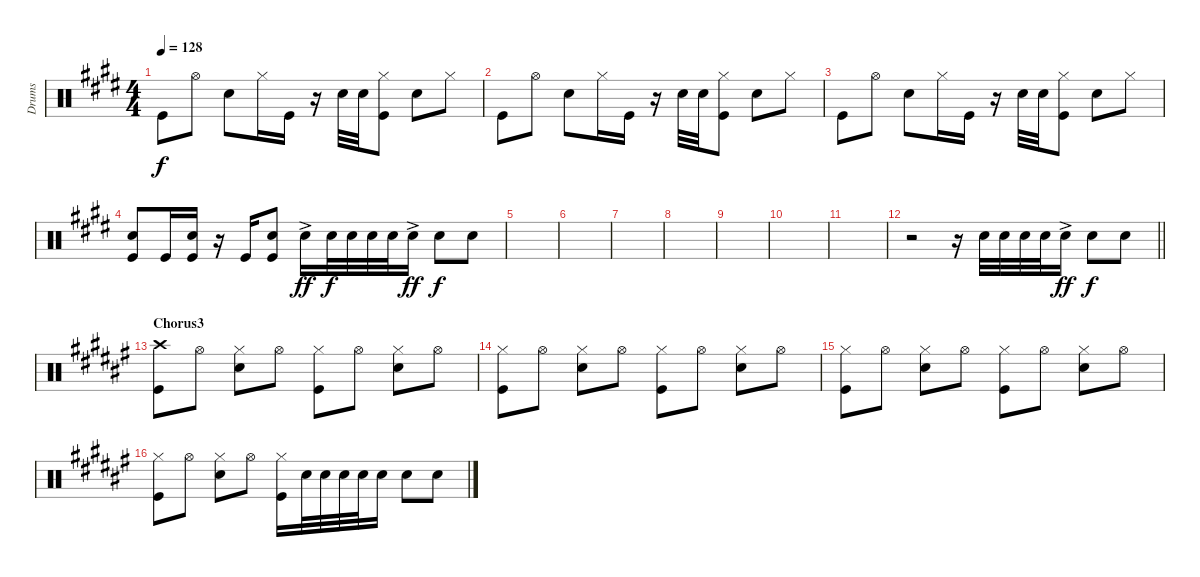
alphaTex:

\track ("Drums" "Drums") {instrument percussion}
\staff {score}
\articulation defaults
\ts (4 4)
\tempo 128
\clef neutral
\ks c#minor "Kick (hit)".8{dy f} "Hi-Hat (open)".8 "Snare (hit) 2".8 "Hi-Hat (closed)".16 "Kick (hit)".16
r.16 "Snare (hit) 2".32 "Snare (hit) 2".32 ("Kick (hit)" "Hi-Hat (closed)").8 "Snare (hit) 2".8 "Hi-Hat (closed)".8 |
"Kick (hit)".8 "Hi-Hat (open)".8 "Snare (hit) 2".8 "Hi-Hat (closed)".16 "Kick (hit)".16 r.16 "Snare (hit) 2".32 "Snare (hit) 2".32 ("Kick (hit)" "Hi-Hat (closed)").8 "Snare (hit) 2".8 "Hi-Hat (closed)".8 |
"Kick (hit)".8 "Hi-Hat (open)".8 "Snare (hit) 2".8 "Hi-Hat (closed)".16 "Kick (hit)".16 r.16 "Snare (hit) 2".32 "Snare (hit) 2".32 ("Kick (hit)" "Hi-Hat (closed)").8 "Snare (hit) 2".8 "Hi-Hat (closed)".8 |
("Kick (hit)" "Snare (hit) 2").8 "Kick (hit)".16 ("Kick (hit)" "Snare (hit) 2").16 r.16 "Kick (hit)".16 ("Kick (hit)" "Snare (hit) 2").8 "Snare (hit) 2"{ac}.16{dy ff} "Snare (hit) 2".32{dy f} "Snare (hit) 2".32 "Snare (hit) 2".32 "Snare (hit) 2".32 "Snare (hit) 2"{ac}.16{dy ff} "Snare (hit) 2".8{dy f} "Snare (hit) 2".8 |
|
|
|
|
|
|
|
\barLineRight lightlight
r.2 r.16 "Snare (hit) 2".32 "Snare (hit) 2".32 "Snare (hit) 2".32 "Snare (hit) 2".32 "Snare (hit) 2"{ac}.16{dy ff} "Snare (hit) 2".8{dy f} "Snare (hit) 2".8 |
\section ("" "Chorus3")
\ks d#minor
("Crash high (hit)" "Kick (hit)").8 "Hi-Hat (open)".8 ("Snare (hit) 2" "Hi-Hat (closed)").8 "Hi-Hat (open)".8 ("Hi-Hat (closed)" "Kick (hit)").8 "Hi-Hat (open)".8 ("Hi-Hat (closed)" "Snare (hit) 2").8 "Hi-Hat (open)".8 |
("Hi-Hat (closed)" "Kick (hit)").8 "Hi-Hat (open)".8 ("Hi-Hat (closed)" "Snare (hit) 2").8 "Hi-Hat (open)".8 ("Hi-Hat (closed)" "Kick (hit)").8 "Hi-Hat (open)".8 ("Hi-Hat (closed)" "Snare (hit) 2").8 "Hi-Hat (open)".8 |
("Hi-Hat (closed)" "Kick (hit)").8 "Hi-Hat (open)".8 ("Hi-Hat (closed)" "Snare (hit) 2").8 "Hi-Hat (open)".8 ("Hi-Hat (closed)" "Kick (hit)").8 "Hi-Hat (open)".8 ("Hi-Hat (closed)" "Snare (hit) 2").8 "Hi-Hat (open)".8 |
("Hi-Hat (closed)" "Kick (hit)").8 "Hi-Hat (open)".8 ("Hi-Hat (closed)" "Snare (hit) 2").8 "Hi-Hat (open)".8 ("Hi-Hat (closed)" "Kick (hit)").16 "Snare (hit) 2".32 "Snare (hit) 2".32 "Snare (hit) 2".32 "Snare (hit) 2".32 "Snare (hit) 2".16 "Snare (hit) 2".8 "Snare (hit) 2".8
